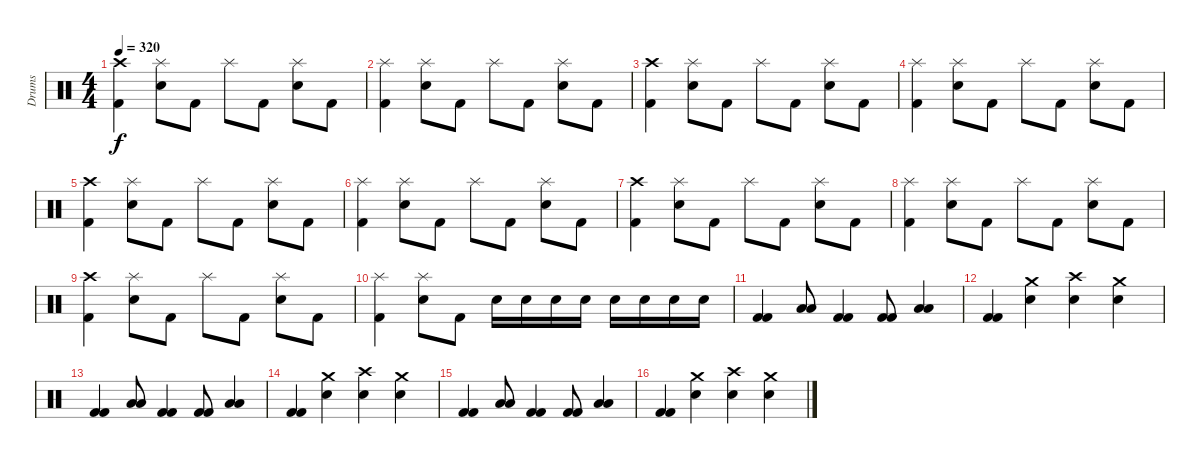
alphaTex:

\track ("Drums" "Drums") {instrument percussion}
\staff {score}
\articulation defaults
\ts (4 4)
\tempo 320
\clef neutral
\ks c
("Crash high (hit)" "Kick (hit) 2").4{dy f} ("Splash (hit)" "Electric Snare (hit)").8 "Kick (hit) 2".8 "Splash (hit)".8 "Kick (hit) 2".8 ("Splash (hit)" "Electric Snare (hit)").8 "Kick (hit) 2".8 |
("Splash (hit)" "Kick (hit) 2").4 ("Splash (hit)" "Electric Snare (hit)").8 "Kick (hit) 2".8 "Splash (hit)".8 "Kick (hit) 2".8 ("Splash (hit)" "Electric Snare (hit)").8 "Kick (hit) 2".8 |
("Crash high (hit)" "Kick (hit) 2").4 ("Splash (hit)" "Electric Snare (hit)").8 "Kick (hit) 2".8 "Splash (hit)".8 "Kick (hit) 2".8 ("Splash (hit)" "Electric Snare (hit)").8 "Kick (hit) 2".8 |
("Splash (hit)" "Kick (hit) 2").4 ("Splash (hit)" "Electric Snare (hit)").8 "Kick (hit) 2".8 "Splash (hit)".8 "Kick (hit) 2".8 ("Splash (hit)" "Electric Snare (hit)").8 "Kick (hit) 2".8 |
("Crash high (hit)" "Kick (hit) 2").4 ("Splash (hit)" "Electric Snare (hit)").8 "Kick (hit) 2".8 "Splash (hit)".8 "Kick (hit) 2".8 ("Splash (hit)" "Electric Snare (hit)").8 "Kick (hit) 2".8 |
("Splash (hit)" "Kick (hit) 2").4 ("Splash (hit)" "Electric Snare (hit)").8 "Kick (hit) 2".8 "Splash (hit)".8 "Kick (hit) 2".8 ("Splash (hit)" "Electric Snare (hit)").8 "Kick (hit) 2".8 |
("Crash high (hit)" "Kick (hit) 2").4 ("Splash (hit)" "Electric Snare (hit)").8 "Kick (hit) 2".8 "Splash (hit)".8 "Kick (hit) 2".8 ("Splash (hit)" "Electric Snare (hit)").8 "Kick (hit) 2".8 |
("Splash (hit)" "Kick (hit) 2").4 ("Splash (hit)" "Electric Snare (hit)").8 "Kick (hit) 2".8 "Splash (hit)".8 "Kick (hit) 2".8 ("Splash (hit)" "Electric Snare (hit)").8 "Kick (hit) 2".8 |
("Crash high (hit)" "Kick (hit) 2").4 ("Splash (hit)" "Electric Snare (hit)").8 "Kick (hit) 2".8 "Splash (hit)".8 "Kick (hit) 2".8 ("Splash (hit)" "Electric Snare (hit)").8 "Kick (hit) 2".8 |
("Splash (hit)" "Kick (hit) 2").4 ("Splash (hit)" "Electric Snare (hit)").8 "Kick (hit) 2".8 "Electric Snare (hit)".16 "Electric Snare (hit)".16 "Electric Snare (hit)".16 "Electric Snare (hit)".16 "Electric Snare (hit)".16 "Electric Snare (hit)".16 "Electric Snare (hit)".16 "Electric Snare (hit)".16 |
("Kick (hit) 2" "Kick (hit) 2").4 ("Low Tom (hit)" "Low Tom (hit)").8 ("Kick (hit) 2" "Kick (hit) 2").4 ("Kick (hit) 2" "Kick (hit) 2").8 ("Low Tom (hit)" "Low Tom (hit)").4 |
("Kick (hit) 2" "Kick (hit) 2").4 ("Crash medium (hit)" "Electric Snare (hit)").4 ("Crash high (hit)" "Electric Snare (hit)").4 ("Crash medium (hit)" "Electric Snare (hit)").4 |
("Kick (hit) 2" "Kick (hit) 2").4 ("Low Tom (hit)" "Low Tom (hit)").8 ("Kick (hit) 2" "Kick (hit) 2").4 ("Kick (hit) 2" "Kick (hit) 2").8 ("Low Tom (hit)" "Low Tom (hit)").4 |
("Kick (hit) 2" "Kick (hit) 2").4 ("Crash medium (hit)" "Electric Snare (hit)").4 ("Crash high (hit)" "Electric Snare (hit)").4 ("Crash medium (hit)" "Electric Snare (hit)").4 |
("Kick (hit) 2" "Kick (hit) 2").4 ("Low Tom (hit)" "Low Tom (hit)").8 ("Kick (hit) 2" "Kick (hit) 2").4 ("Kick (hit) 2" "Kick (hit) 2").8 ("Low Tom (hit)" "Low Tom (hit)").4 |
("Kick (hit) 2" "Kick (hit) 2").4 ("Crash medium (hit)" "Electric Snare (hit)").4 ("Crash high (hit)" "Electric Snare (hit)").4 ("Crash medium (hit)" "Electric Snare (hit)").4
